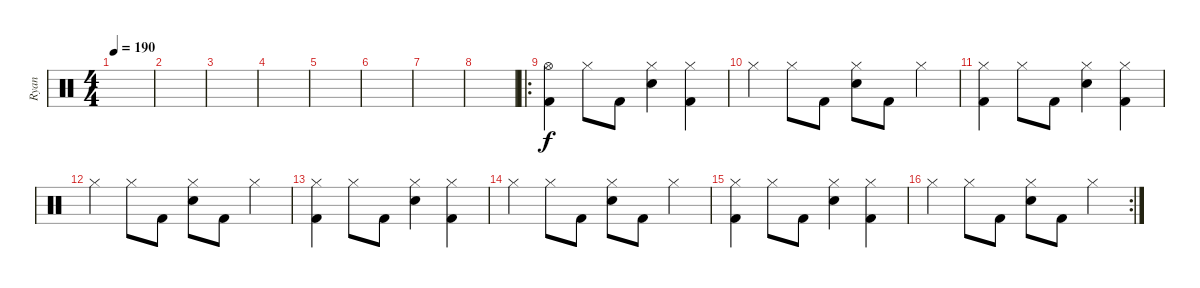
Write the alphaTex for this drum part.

\track ("Ryan" "Ryan") {instrument percussion}
\staff {score}
\articulation defaults
\ts (4 4)
\tempo 190
\clef neutral
\ks c
|
|
|
|
|
|
|
|
\ro
("Hi-Hat (open)" "Kick (hit) 2").4 "Hi-Hat (closed)".8 "Kick (hit) 2".8 ("Hi-Hat (closed)" "Snare (hit) 2").4 ("Hi-Hat (closed)" "Kick (hit) 2").4 |
"Hi-Hat (closed)".4 "Hi-Hat (closed)".8 "Kick (hit) 2".8 ("Hi-Hat (closed)" "Snare (hit) 2").8 "Kick (hit) 2".8 "Hi-Hat (closed)".4 |
("Hi-Hat (closed)" "Kick (hit) 2").4 "Hi-Hat (closed)".8 "Kick (hit) 2".8 ("Hi-Hat (closed)" "Snare (hit) 2").4 ("Hi-Hat (closed)" "Kick (hit) 2").4 |
"Hi-Hat (closed)".4 "Hi-Hat (closed)".8 "Kick (hit) 2".8 ("Hi-Hat (closed)" "Snare (hit) 2").8 "Kick (hit) 2".8 "Hi-Hat (closed)".4 |
("Hi-Hat (closed)" "Kick (hit) 2").4 "Hi-Hat (closed)".8 "Kick (hit) 2".8 ("Hi-Hat (closed)" "Snare (hit) 2").4 ("Hi-Hat (closed)" "Kick (hit) 2").4 |
"Hi-Hat (closed)".4 "Hi-Hat (closed)".8 "Kick (hit) 2".8 ("Hi-Hat (closed)" "Snare (hit) 2").8 "Kick (hit) 2".8 "Hi-Hat (closed)".4 |
("Hi-Hat (closed)" "Kick (hit) 2").4 "Hi-Hat (closed)".8 "Kick (hit) 2".8 ("Hi-Hat (closed)" "Snare (hit) 2").4 ("Hi-Hat (closed)" "Kick (hit) 2").4 |
\rc 2 "Hi-Hat (closed)".4 "Hi-Hat (closed)".8 "Kick (hit) 2".8
("Hi-Hat (closed)" "Snare (hit) 2").8 "Kick (hit) 2".8 "Hi-Hat (closed)".4
